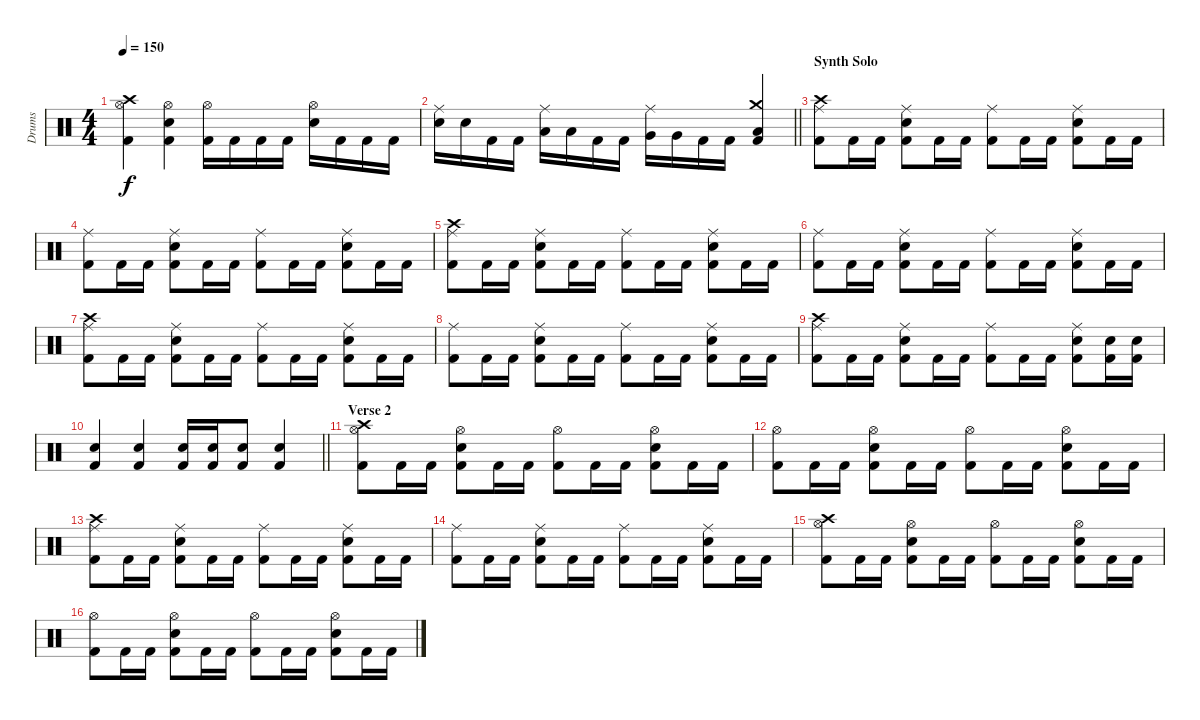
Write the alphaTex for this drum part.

\track ("Drums" "Drums") {instrument percussion}
\staff {score}
\articulation defaults
\ts (4 4)
\tempo 150
\clef neutral
\ks c
("Crash high (hit)" "Hi-Hat (open)" "Kick (hit) 2").4{dy f} ("Hi-Hat (open)" "Snare (hit) 2" "Kick (hit) 2").4 ("Hi-Hat (open)" "Kick (hit) 2").16 "Kick (hit) 2".16 "Kick (hit) 2".16 "Kick (hit) 2".16 ("Hi-Hat (open)" "Snare (hit) 2").16 "Kick (hit) 2".16 "Kick (hit) 2".16 "Kick (hit) 2".16 |
\barLineRight lightlight
("Ride (middle)" "Snare (hit) 2").16 "Snare (hit) 2".16 "Kick (hit) 2".16 "Kick (hit) 2".16 ("Ride (middle)" "Low Tom (hit)").16 "Low Tom (hit)".16 "Kick (hit) 2".16 "Kick (hit) 2".16 ("Ride (middle)" "Very Low Tom (hit)").16 "Very Low Tom (hit)".16 "Kick (hit) 2".16 "Kick (hit) 2".16 ("Crash medium (hit)" "Low Floor Tom (hit)" "Kick (hit) 2").4 |
\section ("" "Synth Solo")
("Crash high (hit)" "Ride (middle)" "Kick (hit) 2").8 "Kick (hit) 2".16 "Kick (hit) 2".16 ("Ride (middle)" "Snare (hit) 2" "Kick (hit) 2").8 "Kick (hit) 2".16 "Kick (hit) 2".16 ("Ride (middle)" "Kick (hit) 2").8 "Kick (hit) 2".16 "Kick (hit) 2".16 ("Ride (middle)" "Snare (hit) 2" "Kick (hit) 2").8 "Kick (hit) 2".16 "Kick (hit) 2".16 |
("Ride (middle)" "Kick (hit) 2").8 "Kick (hit) 2".16 "Kick (hit) 2".16 ("Ride (middle)" "Snare (hit) 2" "Kick (hit) 2").8 "Kick (hit) 2".16 "Kick (hit) 2".16 ("Ride (middle)" "Kick (hit) 2").8 "Kick (hit) 2".16 "Kick (hit) 2".16 ("Ride (middle)" "Snare (hit) 2" "Kick (hit) 2").8 "Kick (hit) 2".16 "Kick (hit) 2".16 |
("Crash high (hit)" "Ride (middle)" "Kick (hit) 2").8 "Kick (hit) 2".16 "Kick (hit) 2".16 ("Ride (middle)" "Snare (hit) 2" "Kick (hit) 2").8 "Kick (hit) 2".16 "Kick (hit) 2".16 ("Ride (middle)" "Kick (hit) 2").8 "Kick (hit) 2".16 "Kick (hit) 2".16 ("Ride (middle)" "Snare (hit) 2" "Kick (hit) 2").8 "Kick (hit) 2".16 "Kick (hit) 2".16 |
("Ride (middle)" "Kick (hit) 2").8 "Kick (hit) 2".16 "Kick (hit) 2".16 ("Ride (middle)" "Snare (hit) 2" "Kick (hit) 2").8 "Kick (hit) 2".16 "Kick (hit) 2".16 ("Ride (middle)" "Kick (hit) 2").8 "Kick (hit) 2".16 "Kick (hit) 2".16 ("Ride (middle)" "Snare (hit) 2" "Kick (hit) 2").8 "Kick (hit) 2".16 "Kick (hit) 2".16 |
("Crash high (hit)" "Ride (middle)" "Kick (hit) 2").8 "Kick (hit) 2".16 "Kick (hit) 2".16 ("Ride (middle)" "Snare (hit) 2" "Kick (hit) 2").8 "Kick (hit) 2".16 "Kick (hit) 2".16 ("Ride (middle)" "Kick (hit) 2").8 "Kick (hit) 2".16 "Kick (hit) 2".16 ("Ride (middle)" "Snare (hit) 2" "Kick (hit) 2").8 "Kick (hit) 2".16 "Kick (hit) 2".16 |
("Ride (middle)" "Kick (hit) 2").8 "Kick (hit) 2".16 "Kick (hit) 2".16 ("Ride (middle)" "Snare (hit) 2" "Kick (hit) 2").8 "Kick (hit) 2".16 "Kick (hit) 2".16 ("Ride (middle)" "Kick (hit) 2").8 "Kick (hit) 2".16 "Kick (hit) 2".16 ("Ride (middle)" "Snare (hit) 2" "Kick (hit) 2").8 "Kick (hit) 2".16 "Kick (hit) 2".16 |
("Crash high (hit)" "Ride (middle)" "Kick (hit) 2").8 "Kick (hit) 2".16 "Kick (hit) 2".16 ("Ride (middle)" "Snare (hit) 2" "Kick (hit) 2").8 "Kick (hit) 2".16 "Kick (hit) 2".16 ("Ride (middle)" "Kick (hit) 2").8 "Kick (hit) 2".16 "Kick (hit) 2".16 ("Ride (middle)" "Snare (hit) 2" "Kick (hit) 2").8 ("Snare (hit) 2" "Kick (hit) 2").16 ("Snare (hit) 2" "Kick (hit) 2").16 |
\barLineRight lightlight
("Snare (hit) 2" "Kick (hit) 2").4 ("Snare (hit) 2" "Kick (hit) 2").4 ("Snare (hit) 2" "Kick (hit) 2").16 ("Snare (hit) 2" "Kick (hit) 2").16 ("Snare (hit) 2" "Kick (hit) 2").8 ("Snare (hit) 2" "Kick (hit) 2").4 |
\section ("" "Verse 2")
("Crash high (hit)" "Hi-Hat (open)" "Kick (hit) 2").8 "Kick (hit) 2".16 "Kick (hit) 2".16 ("Hi-Hat (open)" "Snare (hit) 2" "Kick (hit) 2").8 "Kick (hit) 2".16 "Kick (hit) 2".16 ("Hi-Hat (open)" "Kick (hit) 2").8 "Kick (hit) 2".16 "Kick (hit) 2".16 ("Hi-Hat (open)" "Snare (hit) 2" "Kick (hit) 2").8 "Kick (hit) 2".16 "Kick (hit) 2".16 |
("Hi-Hat (open)" "Kick (hit) 2").8 "Kick (hit) 2".16 "Kick (hit) 2".16 ("Hi-Hat (open)" "Snare (hit) 2" "Kick (hit) 2").8 "Kick (hit) 2".16 "Kick (hit) 2".16 ("Hi-Hat (open)" "Kick (hit) 2").8 "Kick (hit) 2".16 "Kick (hit) 2".16 ("Hi-Hat (open)" "Snare (hit) 2" "Kick (hit) 2").8 "Kick (hit) 2".16 "Kick (hit) 2".16 |
("Crash high (hit)" "Ride (middle)" "Kick (hit) 2").8 "Kick (hit) 2".16 "Kick (hit) 2".16 ("Ride (middle)" "Snare (hit) 2" "Kick (hit) 2").8 "Kick (hit) 2".16 "Kick (hit) 2".16 ("Ride (middle)" "Kick (hit) 2").8 "Kick (hit) 2".16 "Kick (hit) 2".16 ("Ride (middle)" "Snare (hit) 2" "Kick (hit) 2").8 "Kick (hit) 2".16 "Kick (hit) 2".16 |
("Ride (middle)" "Kick (hit) 2").8 "Kick (hit) 2".16 "Kick (hit) 2".16 ("Ride (middle)" "Snare (hit) 2" "Kick (hit) 2").8 "Kick (hit) 2".16 "Kick (hit) 2".16 ("Ride (middle)" "Kick (hit) 2").8 "Kick (hit) 2".16 "Kick (hit) 2".16 ("Ride (middle)" "Snare (hit) 2" "Kick (hit) 2").8 "Kick (hit) 2".16 "Kick (hit) 2".16 |
("Crash high (hit)" "Hi-Hat (open)" "Kick (hit) 2").8 "Kick (hit) 2".16 "Kick (hit) 2".16 ("Hi-Hat (open)" "Snare (hit) 2" "Kick (hit) 2").8 "Kick (hit) 2".16 "Kick (hit) 2".16 ("Hi-Hat (open)" "Kick (hit) 2").8 "Kick (hit) 2".16 "Kick (hit) 2".16 ("Hi-Hat (open)" "Snare (hit) 2" "Kick (hit) 2").8 "Kick (hit) 2".16 "Kick (hit) 2".16 |
("Hi-Hat (open)" "Kick (hit) 2").8 "Kick (hit) 2".16 "Kick (hit) 2".16 ("Hi-Hat (open)" "Snare (hit) 2" "Kick (hit) 2").8 "Kick (hit) 2".16 "Kick (hit) 2".16 ("Hi-Hat (open)" "Kick (hit) 2").8 "Kick (hit) 2".16 "Kick (hit) 2".16 ("Hi-Hat (open)" "Snare (hit) 2" "Kick (hit) 2").8 "Kick (hit) 2".16 "Kick (hit) 2".16
